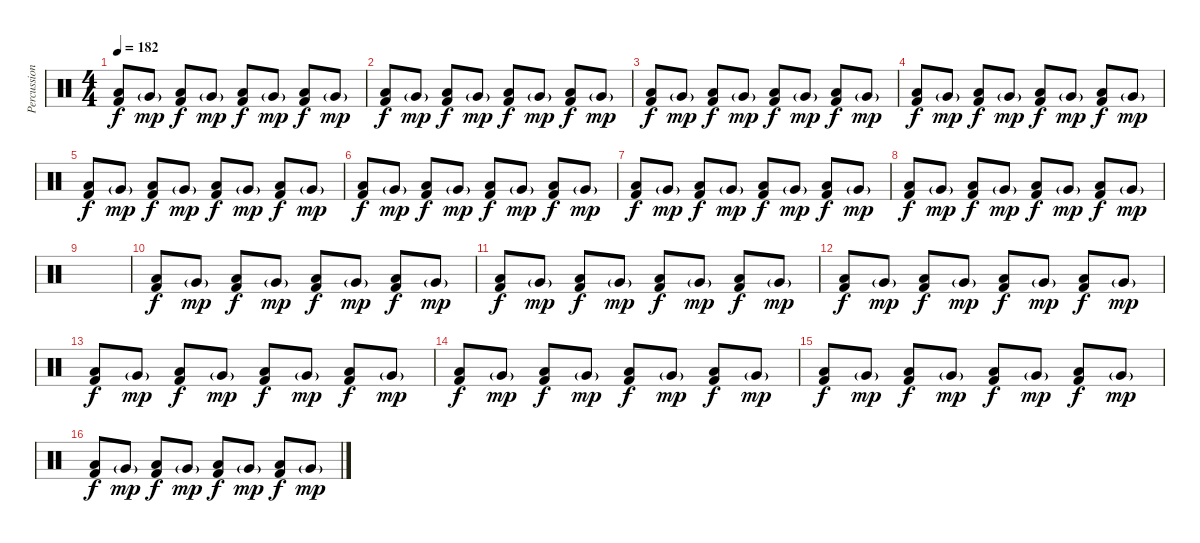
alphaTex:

\track ("Percussion" "Percussion") {instrument percussion}
\staff {score}
\articulation defaults
\ts (4 4)
\tempo 182
\clef neutral
\ks c
("Low Floor Tom (hit)" "Kick (hit) 2").8{dy f} "Very Low Tom (hit)"{g}.8{dy mp} ("Low Floor Tom (hit)" "Kick (hit) 2").8{dy f} "Very Low Tom (hit)"{g}.8{dy mp} ("Low Floor Tom (hit)" "Kick (hit) 2").8{dy f} "Very Low Tom (hit)"{g}.8{dy mp} ("Low Floor Tom (hit)" "Kick (hit) 2").8{dy f} "Very Low Tom (hit)"{g}.8{dy mp} |
("Low Floor Tom (hit)" "Kick (hit) 2").8{dy f} "Very Low Tom (hit)"{g}.8{dy mp} ("Low Floor Tom (hit)" "Kick (hit) 2").8{dy f} "Very Low Tom (hit)"{g}.8{dy mp} ("Low Floor Tom (hit)" "Kick (hit) 2").8{dy f} "Very Low Tom (hit)"{g}.8{dy mp} ("Low Floor Tom (hit)" "Kick (hit) 2").8{dy f} "Very Low Tom (hit)"{g}.8{dy mp} |
("Low Floor Tom (hit)" "Kick (hit) 2").8{dy f} "Very Low Tom (hit)"{g}.8{dy mp} ("Low Floor Tom (hit)" "Kick (hit) 2").8{dy f} "Very Low Tom (hit)"{g}.8{dy mp} ("Low Floor Tom (hit)" "Kick (hit) 2").8{dy f} "Very Low Tom (hit)"{g}.8{dy mp} ("Low Floor Tom (hit)" "Kick (hit) 2").8{dy f} "Very Low Tom (hit)"{g}.8{dy mp} |
("Low Floor Tom (hit)" "Kick (hit) 2").8{dy f} "Very Low Tom (hit)"{g}.8{dy mp} ("Low Floor Tom (hit)" "Kick (hit) 2").8{dy f} "Very Low Tom (hit)"{g}.8{dy mp} ("Low Floor Tom (hit)" "Kick (hit) 2").8{dy f} "Very Low Tom (hit)"{g}.8{dy mp} ("Low Floor Tom (hit)" "Kick (hit) 2").8{dy f} "Very Low Tom (hit)"{g}.8{dy mp} |
("Low Floor Tom (hit)" "Kick (hit) 2").8{dy f} "Very Low Tom (hit)"{g}.8{dy mp} ("Low Floor Tom (hit)" "Kick (hit) 2").8{dy f} "Very Low Tom (hit)"{g}.8{dy mp} ("Low Floor Tom (hit)" "Kick (hit) 2").8{dy f} "Very Low Tom (hit)"{g}.8{dy mp} ("Low Floor Tom (hit)" "Kick (hit) 2").8{dy f} "Very Low Tom (hit)"{g}.8{dy mp} |
("Low Floor Tom (hit)" "Kick (hit) 2").8{dy f} "Very Low Tom (hit)"{g}.8{dy mp} ("Low Floor Tom (hit)" "Kick (hit) 2").8{dy f} "Very Low Tom (hit)"{g}.8{dy mp} ("Low Floor Tom (hit)" "Kick (hit) 2").8{dy f} "Very Low Tom (hit)"{g}.8{dy mp} ("Low Floor Tom (hit)" "Kick (hit) 2").8{dy f} "Very Low Tom (hit)"{g}.8{dy mp} |
("Low Floor Tom (hit)" "Kick (hit) 2").8{dy f} "Very Low Tom (hit)"{g}.8{dy mp} ("Low Floor Tom (hit)" "Kick (hit) 2").8{dy f} "Very Low Tom (hit)"{g}.8{dy mp} ("Low Floor Tom (hit)" "Kick (hit) 2").8{dy f} "Very Low Tom (hit)"{g}.8{dy mp} ("Low Floor Tom (hit)" "Kick (hit) 2").8{dy f} "Very Low Tom (hit)"{g}.8{dy mp} |
("Low Floor Tom (hit)" "Kick (hit) 2").8{dy f} "Very Low Tom (hit)"{g}.8{dy mp} ("Low Floor Tom (hit)" "Kick (hit) 2").8{dy f} "Very Low Tom (hit)"{g}.8{dy mp} ("Low Floor Tom (hit)" "Kick (hit) 2").8{dy f} "Very Low Tom (hit)"{g}.8{dy mp} ("Low Floor Tom (hit)" "Kick (hit) 2").8{dy f} "Very Low Tom (hit)"{g}.8{dy mp} |
|
("Low Floor Tom (hit)" "Kick (hit) 2").8{dy f} "Very Low Tom (hit)"{g}.8{dy mp} ("Low Floor Tom (hit)" "Kick (hit) 2").8{dy f} "Very Low Tom (hit)"{g}.8{dy mp} ("Low Floor Tom (hit)" "Kick (hit) 2").8{dy f} "Very Low Tom (hit)"{g}.8{dy mp} ("Low Floor Tom (hit)" "Kick (hit) 2").8{dy f} "Very Low Tom (hit)"{g}.8{dy mp} |
("Low Floor Tom (hit)" "Kick (hit) 2").8{dy f} "Very Low Tom (hit)"{g}.8{dy mp} ("Low Floor Tom (hit)" "Kick (hit) 2").8{dy f} "Very Low Tom (hit)"{g}.8{dy mp} ("Low Floor Tom (hit)" "Kick (hit) 2").8{dy f} "Very Low Tom (hit)"{g}.8{dy mp} ("Low Floor Tom (hit)" "Kick (hit) 2").8{dy f} "Very Low Tom (hit)"{g}.8{dy mp} |
("Low Floor Tom (hit)" "Kick (hit) 2").8{dy f} "Very Low Tom (hit)"{g}.8{dy mp} ("Low Floor Tom (hit)" "Kick (hit) 2").8{dy f} "Very Low Tom (hit)"{g}.8{dy mp} ("Low Floor Tom (hit)" "Kick (hit) 2").8{dy f} "Very Low Tom (hit)"{g}.8{dy mp} ("Low Floor Tom (hit)" "Kick (hit) 2").8{dy f} "Very Low Tom (hit)"{g}.8{dy mp} |
("Low Floor Tom (hit)" "Kick (hit) 2").8{dy f} "Very Low Tom (hit)"{g}.8{dy mp} ("Low Floor Tom (hit)" "Kick (hit) 2").8{dy f} "Very Low Tom (hit)"{g}.8{dy mp} ("Low Floor Tom (hit)" "Kick (hit) 2").8{dy f} "Very Low Tom (hit)"{g}.8{dy mp} ("Low Floor Tom (hit)" "Kick (hit) 2").8{dy f} "Very Low Tom (hit)"{g}.8{dy mp} |
("Low Floor Tom (hit)" "Kick (hit) 2").8{dy f} "Very Low Tom (hit)"{g}.8{dy mp} ("Low Floor Tom (hit)" "Kick (hit) 2").8{dy f} "Very Low Tom (hit)"{g}.8{dy mp} ("Low Floor Tom (hit)" "Kick (hit) 2").8{dy f} "Very Low Tom (hit)"{g}.8{dy mp} ("Low Floor Tom (hit)" "Kick (hit) 2").8{dy f} "Very Low Tom (hit)"{g}.8{dy mp} |
("Low Floor Tom (hit)" "Kick (hit) 2").8{dy f} "Very Low Tom (hit)"{g}.8{dy mp} ("Low Floor Tom (hit)" "Kick (hit) 2").8{dy f} "Very Low Tom (hit)"{g}.8{dy mp} ("Low Floor Tom (hit)" "Kick (hit) 2").8{dy f} "Very Low Tom (hit)"{g}.8{dy mp} ("Low Floor Tom (hit)" "Kick (hit) 2").8{dy f} "Very Low Tom (hit)"{g}.8{dy mp} |
("Low Floor Tom (hit)" "Kick (hit) 2").8{dy f} "Very Low Tom (hit)"{g}.8{dy mp} ("Low Floor Tom (hit)" "Kick (hit) 2").8{dy f} "Very Low Tom (hit)"{g}.8{dy mp} ("Low Floor Tom (hit)" "Kick (hit) 2").8{dy f} "Very Low Tom (hit)"{g}.8{dy mp} ("Low Floor Tom (hit)" "Kick (hit) 2").8{dy f} "Very Low Tom (hit)"{g}.8{dy mp}
